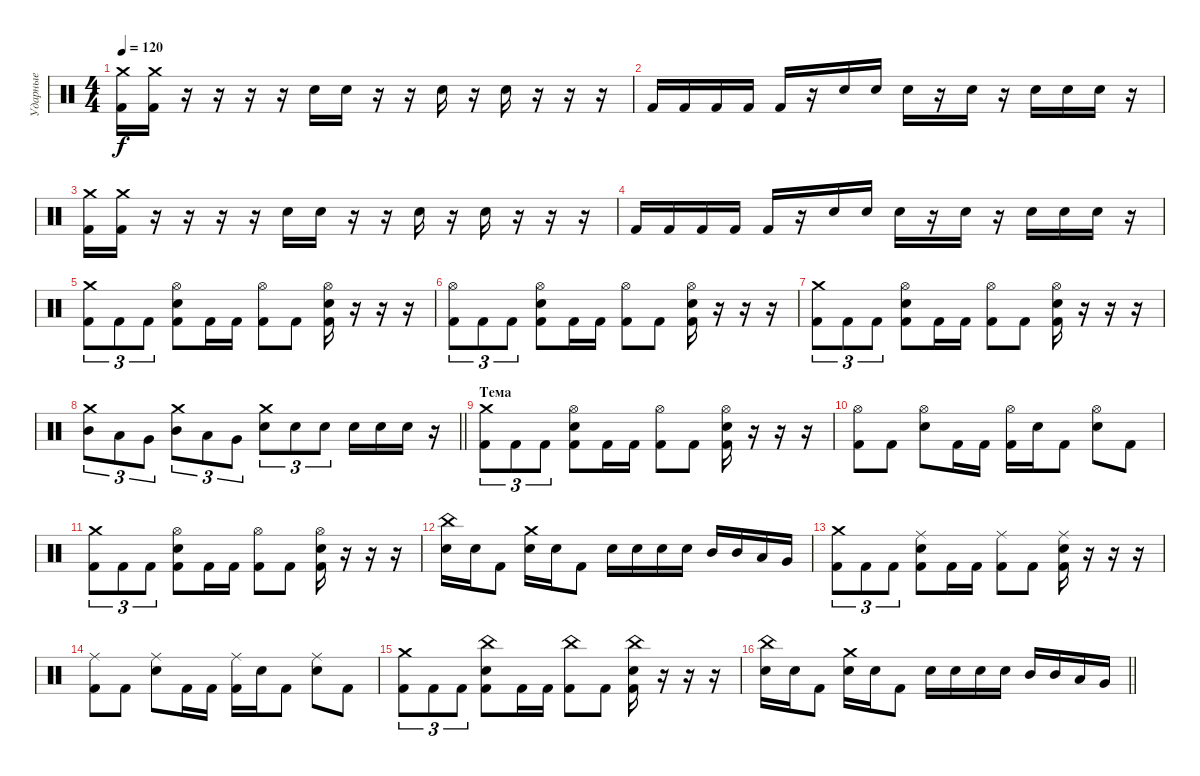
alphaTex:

\track ("Ударные" "Ударные") {instrument percussion}
\staff {score}
\articulation defaults
\ts (4 4)
\tempo 120
\clef neutral
\ks c
("Kick (hit) 2" "Crash medium (hit)").16{dy f} ("Kick (hit) 2" "Crash medium (hit)").16 r.16 r.16 r.16 r.16 "Electric Snare (hit)".16 "Electric Snare (hit)".16 r.16 r.16 "Electric Snare (hit)".16 r.16 "Electric Snare (hit)".16 r.16 r.16 r.16 |
"Kick (hit) 2".16 "Kick (hit) 2".16 "Kick (hit) 2".16 "Kick (hit) 2".16 "Kick (hit) 2".16 r.16 "Electric Snare (hit)".16 "Electric Snare (hit)".16 "Electric Snare (hit)".16 r.16 "Electric Snare (hit)".16 r.16 "Electric Snare (hit)".16 "Electric Snare (hit)".16 "Electric Snare (hit)".16 r.16 |
("Kick (hit) 2" "Crash medium (hit)").16 ("Kick (hit) 2" "Crash medium (hit)").16 r.16 r.16 r.16 r.16 "Electric Snare (hit)".16 "Electric Snare (hit)".16 r.16 r.16 "Electric Snare (hit)".16 r.16 "Electric Snare (hit)".16 r.16 r.16 r.16 |
"Kick (hit) 2".16 "Kick (hit) 2".16 "Kick (hit) 2".16 "Kick (hit) 2".16 "Kick (hit) 2".16 r.16 "Electric Snare (hit)".16 "Electric Snare (hit)".16 "Electric Snare (hit)".16 r.16 "Electric Snare (hit)".16 r.16 "Electric Snare (hit)".16 "Electric Snare (hit)".16 "Electric Snare (hit)".16 r.16 |
("Kick (hit) 2" "Crash medium (hit)").8{tu (3 2)} "Kick (hit) 2".8{tu (3 2)} "Kick (hit) 2".8{tu (3 2)} ("Kick (hit) 2" "Electric Snare (hit)" "Hi-Hat (open)").8 "Kick (hit) 2".16 "Kick (hit) 2".16 ("Kick (hit) 2" "Hi-Hat (open)").8 "Kick (hit) 2".8 ("Electric Snare (hit)" "Kick (hit) 2" "Hi-Hat (open)").16 r.16 r.16 r.16 |
("Kick (hit) 2" "Hi-Hat (open)").8{tu (3 2)} "Kick (hit) 2".8{tu (3 2)} "Kick (hit) 2".8{tu (3 2)} ("Kick (hit) 2" "Electric Snare (hit)" "Hi-Hat (open)").8 "Kick (hit) 2".16 "Kick (hit) 2".16 ("Kick (hit) 2" "Hi-Hat (open)").8 "Kick (hit) 2".8 ("Electric Snare (hit)" "Kick (hit) 2" "Hi-Hat (open)").16 r.16 r.16 r.16 |
("Kick (hit) 2" "Crash medium (hit)").8{tu (3 2)} "Kick (hit) 2".8{tu (3 2)} "Kick (hit) 2".8{tu (3 2)} ("Kick (hit) 2" "Electric Snare (hit)" "Hi-Hat (open)").8 "Kick (hit) 2".16 "Kick (hit) 2".16 ("Kick (hit) 2" "Hi-Hat (open)").8 "Kick (hit) 2".8 ("Electric Snare (hit)" "Kick (hit) 2" "Hi-Hat (open)").16 r.16 r.16 r.16 |
\barLineRight lightlight
("Mid Tom (hit)" "Crash medium (hit)").8{tu (3 2)} "Low Tom (hit)".8{tu (3 2)} "Very Low Tom (hit)".8{tu (3 2)} ("Mid Tom (hit)" "Crash medium (hit)").8{tu (3 2)} "Low Tom (hit)".8{tu (3 2)} "Very Low Tom (hit)".8{tu (3 2)} ("Electric Snare (hit)" "Crash medium (hit)").8{tu (3 2)} "Electric Snare (hit)".8{tu (3 2)} "Electric Snare (hit)".8{tu (3 2)} "Electric Snare (hit)".16 "Electric Snare (hit)".16 "Electric Snare (hit)".16 r.16 |
\section ("" "Тема")
("Kick (hit) 2" "Crash medium (hit)").8{tu (3 2)} "Kick (hit) 2".8{tu (3 2)} "Kick (hit) 2".8{tu (3 2)} ("Kick (hit) 2" "Electric Snare (hit)" "Hi-Hat (open)").8 "Kick (hit) 2".16 "Kick (hit) 2".16 ("Kick (hit) 2" "Hi-Hat (open)").8 "Kick (hit) 2".8 ("Electric Snare (hit)" "Kick (hit) 2" "Hi-Hat (open)").16 r.16 r.16 r.16 |
("Kick (hit) 2" "Hi-Hat (open)").8 "Kick (hit) 2".8 ("Electric Snare (hit)" "Hi-Hat (open)").8 "Kick (hit) 2".16 "Kick (hit) 2".16 ("Kick (hit) 2" "Hi-Hat (open)").16 "Electric Snare (hit)".16 "Kick (hit) 2".8 ("Electric Snare (hit)" "Hi-Hat (open)").8 "Kick (hit) 2".8 |
("Kick (hit) 2" "Crash medium (hit)").8{tu (3 2)} "Kick (hit) 2".8{tu (3 2)} "Kick (hit) 2".8{tu (3 2)} ("Kick (hit) 2" "Electric Snare (hit)" "Hi-Hat (open)").8 "Kick (hit) 2".16 "Kick (hit) 2".16 ("Kick (hit) 2" "Hi-Hat (open)").8 "Kick (hit) 2".8 ("Electric Snare (hit)" "Kick (hit) 2" "Hi-Hat (open)").16 r.16 r.16 r.16 |
("Electric Snare (hit)" "China (hit)").16 "Electric Snare (hit)".16 "Kick (hit) 2".8 ("Electric Snare (hit)" "Crash medium (hit)").16 "Electric Snare (hit)".16 "Kick (hit) 2".8 "Electric Snare (hit)".16 "Electric Snare (hit)".16 "Electric Snare (hit)".16 "Electric Snare (hit)".16 "Mid Tom (hit)".16 "Mid Tom (hit)".16 "Low Tom (hit)".16 "Very Low Tom (hit)".16 |
("Kick (hit) 2" "Crash medium (hit)").8{tu (3 2)} "Kick (hit) 2".8{tu (3 2)} "Kick (hit) 2".8{tu (3 2)} ("Kick (hit) 2" "Electric Snare (hit)" "Ride (middle)").8 "Kick (hit) 2".16 "Kick (hit) 2".16 ("Kick (hit) 2" "Ride (middle)").8 "Kick (hit) 2".8 ("Electric Snare (hit)" "Kick (hit) 2" "Ride (middle)").16 r.16 r.16 r.16 |
("Kick (hit) 2" "Ride (middle)").8 "Kick (hit) 2".8 ("Electric Snare (hit)" "Ride (middle)").8 "Kick (hit) 2".16 "Kick (hit) 2".16 ("Kick (hit) 2" "Ride (middle)").16 "Electric Snare (hit)".16 "Kick (hit) 2".8 ("Electric Snare (hit)" "Ride (middle)").8 "Kick (hit) 2".8 |
("Kick (hit) 2" "Crash medium (hit)").8{tu (3 2)} "Kick (hit) 2".8{tu (3 2)} "Kick (hit) 2".8{tu (3 2)} ("Kick (hit) 2" "Electric Snare (hit)" "China (hit)").8 "Kick (hit) 2".16 "Kick (hit) 2".16 ("Kick (hit) 2" "China (hit)").8 "Kick (hit) 2".8 ("Electric Snare (hit)" "Kick (hit) 2" "China (hit)").16 r.16 r.16 r.16 |
\barLineRight lightlight
("Electric Snare (hit)" "China (hit)").16 "Electric Snare (hit)".16 "Kick (hit) 2".8 ("Electric Snare (hit)" "Crash medium (hit)").16 "Electric Snare (hit)".16 "Kick (hit) 2".8 "Electric Snare (hit)".16 "Electric Snare (hit)".16 "Electric Snare (hit)".16 "Electric Snare (hit)".16 "Mid Tom (hit)".16 "Mid Tom (hit)".16 "Low Tom (hit)".16 "Very Low Tom (hit)".16
